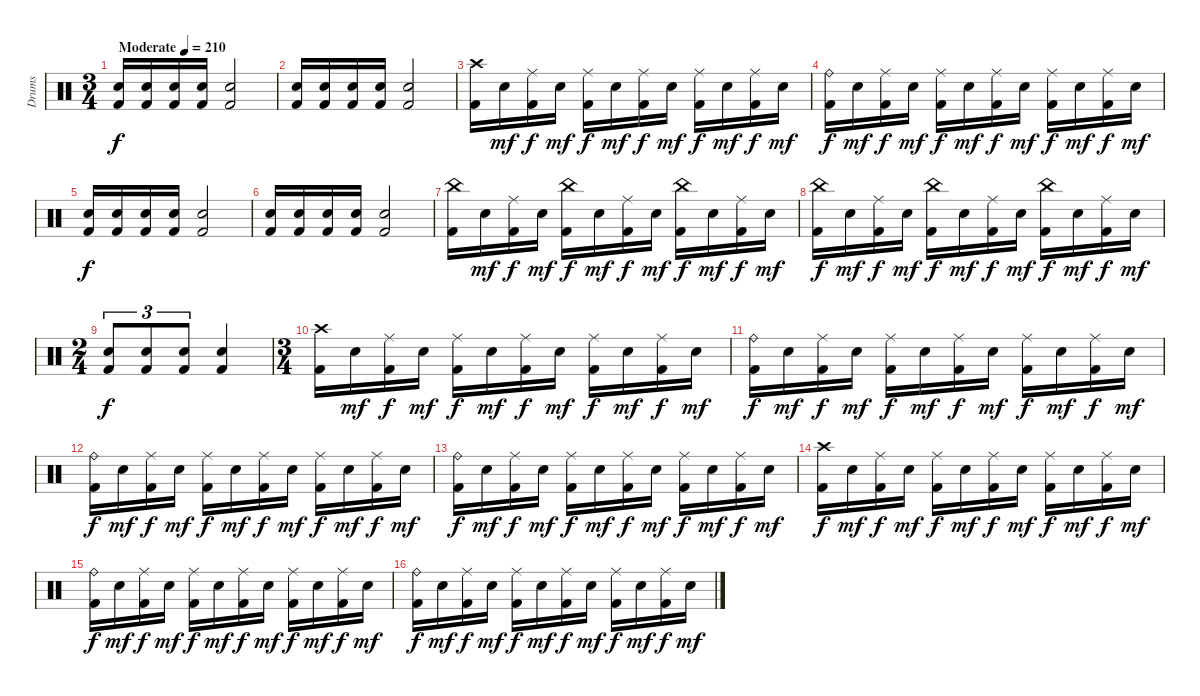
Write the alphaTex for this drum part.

\track ("Drums" "Drums") {instrument percussion}
\staff {score}
\articulation defaults
\ts (3 4)
\tempo (210 "Moderate")
\clef neutral
\ks c
("Electric Snare (hit)" "Kick (hit) 2").16{dy f} ("Electric Snare (hit)" "Kick (hit) 2").16 ("Electric Snare (hit)" "Kick (hit) 2").16 ("Electric Snare (hit)" "Kick (hit) 2").16 ("Electric Snare (hit)" "Kick (hit) 2").2 |
("Electric Snare (hit)" "Kick (hit) 2").16 ("Electric Snare (hit)" "Kick (hit) 2").16 ("Electric Snare (hit)" "Kick (hit) 2").16 ("Electric Snare (hit)" "Kick (hit) 2").16 ("Electric Snare (hit)" "Kick (hit) 2").2 |
("Crash high (hit)" "Kick (hit) 2").16 "Electric Snare (hit)".16{dy mf} ("Ride (middle)" "Kick (hit) 2").16{dy f} "Electric Snare (hit)".16{dy mf} ("Ride (middle)" "Kick (hit) 2").16{dy f} "Electric Snare (hit)".16{dy mf} ("Ride (middle)" "Kick (hit) 2").16{dy f} "Electric Snare (hit)".16{dy mf} ("Ride (middle)" "Kick (hit) 2").16{dy f} "Electric Snare (hit)".16{dy mf} ("Ride (middle)" "Kick (hit) 2").16{dy f} "Electric Snare (hit)".16{dy mf} |
("Ride (bell)" "Kick (hit) 2").16{dy f} "Electric Snare (hit)".16{dy mf} ("Ride (middle)" "Kick (hit) 2").16{dy f} "Electric Snare (hit)".16{dy mf} ("Ride (middle)" "Kick (hit) 2").16{dy f} "Electric Snare (hit)".16{dy mf} ("Ride (middle)" "Kick (hit) 2").16{dy f} "Electric Snare (hit)".16{dy mf} ("Ride (middle)" "Kick (hit) 2").16{dy f} "Electric Snare (hit)".16{dy mf} ("Ride (middle)" "Kick (hit) 2").16{dy f} "Electric Snare (hit)".16{dy mf} |
("Electric Snare (hit)" "Kick (hit) 2").16{dy f} ("Electric Snare (hit)" "Kick (hit) 2").16 ("Electric Snare (hit)" "Kick (hit) 2").16 ("Electric Snare (hit)" "Kick (hit) 2").16 ("Electric Snare (hit)" "Kick (hit) 2").2 |
("Electric Snare (hit)" "Kick (hit) 2").16 ("Electric Snare (hit)" "Kick (hit) 2").16 ("Electric Snare (hit)" "Kick (hit) 2").16 ("Electric Snare (hit)" "Kick (hit) 2").16 ("Electric Snare (hit)" "Kick (hit) 2").2 |
("China (hit)" "Kick (hit) 2").16 "Electric Snare (hit)".16{dy mf} ("Ride (middle)" "Kick (hit) 2").16{dy f} "Electric Snare (hit)".16{dy mf} ("China (hit)" "Kick (hit) 2").16{dy f} "Electric Snare (hit)".16{dy mf} ("Ride (middle)" "Kick (hit) 2").16{dy f} "Electric Snare (hit)".16{dy mf} ("China (hit)" "Kick (hit) 2").16{dy f} "Electric Snare (hit)".16{dy mf} ("Ride (middle)" "Kick (hit) 2").16{dy f} "Electric Snare (hit)".16{dy mf} |
("China (hit)" "Kick (hit) 2").16{dy f} "Electric Snare (hit)".16{dy mf} ("Ride (middle)" "Kick (hit) 2").16{dy f} "Electric Snare (hit)".16{dy mf} ("China (hit)" "Kick (hit) 2").16{dy f} "Electric Snare (hit)".16{dy mf} ("Ride (middle)" "Kick (hit) 2").16{dy f} "Electric Snare (hit)".16{dy mf} ("China (hit)" "Kick (hit) 2").16{dy f} "Electric Snare (hit)".16{dy mf} ("Ride (middle)" "Kick (hit) 2").16{dy f} "Electric Snare (hit)".16{dy mf} |
\ts (2 4)
("Electric Snare (hit)" "Kick (hit) 2").8{tu (3 2) dy f} ("Electric Snare (hit)" "Kick (hit) 2").8{tu (3 2)} ("Electric Snare (hit)" "Kick (hit) 2").8{tu (3 2)} ("Electric Snare (hit)" "Kick (hit) 2").4 |
\ts (3 4)
("Crash high (hit)" "Kick (hit) 2").16 "Electric Snare (hit)".16{dy mf} ("Ride (middle)" "Kick (hit) 2").16{dy f} "Electric Snare (hit)".16{dy mf} ("Ride (middle)" "Kick (hit) 2").16{dy f} "Electric Snare (hit)".16{dy mf} ("Ride (middle)" "Kick (hit) 2").16{dy f} "Electric Snare (hit)".16{dy mf} ("Ride (middle)" "Kick (hit) 2").16{dy f} "Electric Snare (hit)".16{dy mf} ("Ride (middle)" "Kick (hit) 2").16{dy f} "Electric Snare (hit)".16{dy mf} |
("Ride (bell)" "Kick (hit) 2").16{dy f} "Electric Snare (hit)".16{dy mf} ("Ride (middle)" "Kick (hit) 2").16{dy f} "Electric Snare (hit)".16{dy mf} ("Ride (middle)" "Kick (hit) 2").16{dy f} "Electric Snare (hit)".16{dy mf} ("Ride (middle)" "Kick (hit) 2").16{dy f} "Electric Snare (hit)".16{dy mf} ("Ride (middle)" "Kick (hit) 2").16{dy f} "Electric Snare (hit)".16{dy mf} ("Ride (middle)" "Kick (hit) 2").16{dy f} "Electric Snare (hit)".16{dy mf} |
("Ride (bell)" "Kick (hit) 2").16{dy f} "Electric Snare (hit)".16{dy mf} ("Ride (middle)" "Kick (hit) 2").16{dy f} "Electric Snare (hit)".16{dy mf} ("Ride (middle)" "Kick (hit) 2").16{dy f} "Electric Snare (hit)".16{dy mf} ("Ride (middle)" "Kick (hit) 2").16{dy f} "Electric Snare (hit)".16{dy mf} ("Ride (middle)" "Kick (hit) 2").16{dy f} "Electric Snare (hit)".16{dy mf} ("Ride (middle)" "Kick (hit) 2").16{dy f} "Electric Snare (hit)".16{dy mf} |
("Ride (bell)" "Kick (hit) 2").16{dy f} "Electric Snare (hit)".16{dy mf} ("Ride (middle)" "Kick (hit) 2").16{dy f} "Electric Snare (hit)".16{dy mf} ("Ride (middle)" "Kick (hit) 2").16{dy f} "Electric Snare (hit)".16{dy mf} ("Ride (middle)" "Kick (hit) 2").16{dy f} "Electric Snare (hit)".16{dy mf} ("Ride (middle)" "Kick (hit) 2").16{dy f} "Electric Snare (hit)".16{dy mf} ("Ride (middle)" "Kick (hit) 2").16{dy f} "Electric Snare (hit)".16{dy mf} |
("Crash high (hit)" "Kick (hit) 2").16{dy f} "Electric Snare (hit)".16{dy mf} ("Ride (middle)" "Kick (hit) 2").16{dy f} "Electric Snare (hit)".16{dy mf} ("Ride (middle)" "Kick (hit) 2").16{dy f} "Electric Snare (hit)".16{dy mf} ("Ride (middle)" "Kick (hit) 2").16{dy f} "Electric Snare (hit)".16{dy mf} ("Ride (middle)" "Kick (hit) 2").16{dy f} "Electric Snare (hit)".16{dy mf} ("Ride (middle)" "Kick (hit) 2").16{dy f} "Electric Snare (hit)".16{dy mf} |
("Ride (bell)" "Kick (hit) 2").16{dy f} "Electric Snare (hit)".16{dy mf} ("Ride (middle)" "Kick (hit) 2").16{dy f} "Electric Snare (hit)".16{dy mf} ("Ride (middle)" "Kick (hit) 2").16{dy f} "Electric Snare (hit)".16{dy mf} ("Ride (middle)" "Kick (hit) 2").16{dy f} "Electric Snare (hit)".16{dy mf} ("Ride (middle)" "Kick (hit) 2").16{dy f} "Electric Snare (hit)".16{dy mf} ("Ride (middle)" "Kick (hit) 2").16{dy f} "Electric Snare (hit)".16{dy mf} |
("Ride (bell)" "Kick (hit) 2").16{dy f} "Electric Snare (hit)".16{dy mf} ("Ride (middle)" "Kick (hit) 2").16{dy f} "Electric Snare (hit)".16{dy mf} ("Ride (middle)" "Kick (hit) 2").16{dy f} "Electric Snare (hit)".16{dy mf} ("Ride (middle)" "Kick (hit) 2").16{dy f} "Electric Snare (hit)".16{dy mf} ("Ride (middle)" "Kick (hit) 2").16{dy f} "Electric Snare (hit)".16{dy mf} ("Ride (middle)" "Kick (hit) 2").16{dy f} "Electric Snare (hit)".16{dy mf}
